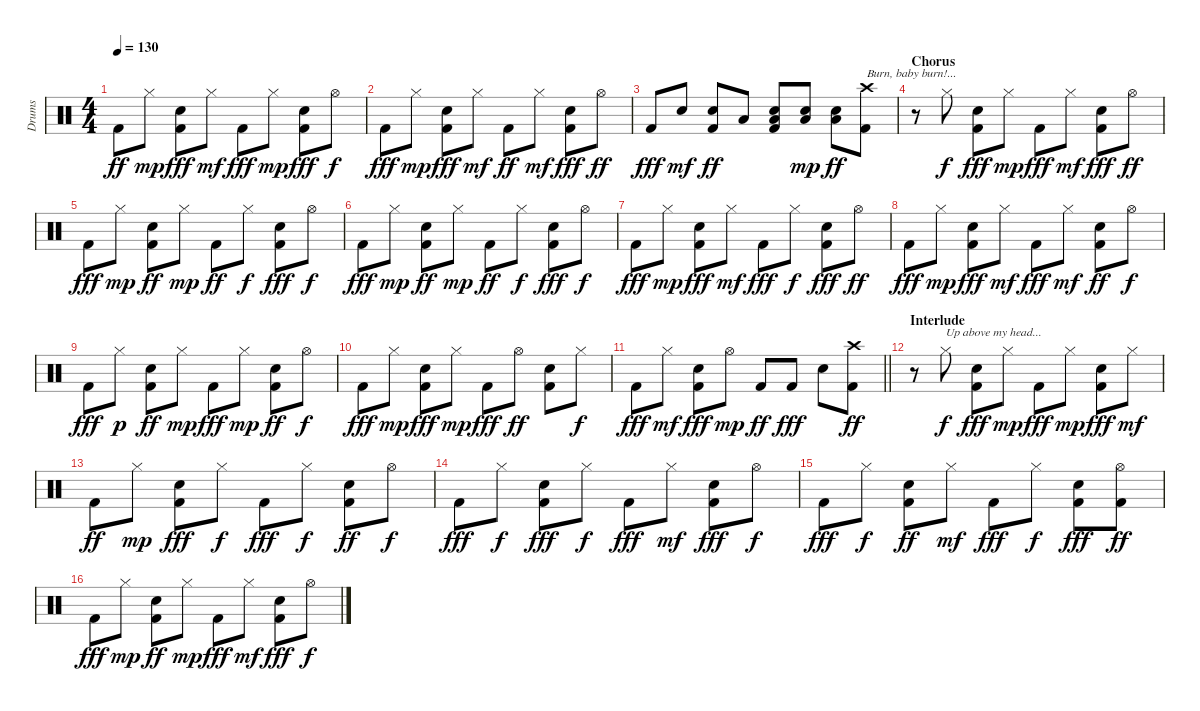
\track ("Drums" "Drums") {instrument percussion}
\staff {score}
\articulation defaults
\ts (4 4)
\tempo 130
\clef neutral
\ks c "Kick (hit) 2".8{dy ff} "Hi-Hat (closed)".8{dy mp}
("Kick (hit) 2" "Snare (hit) 2").8{dy fff} "Hi-Hat (closed)".8{dy mf} "Kick (hit) 2".8{dy fff} "Hi-Hat (closed)".8{dy mp} ("Kick (hit) 2" "Snare (hit) 2").8{dy fff} "Hi-Hat (open)".8{dy f} |
"Kick (hit) 2".8{dy fff} "Hi-Hat (closed)".8{dy mp} ("Kick (hit) 2" "Snare (hit) 2").8{dy fff} "Hi-Hat (closed)".8{dy mf} "Kick (hit) 2".8{dy ff} "Hi-Hat (closed)".8{dy mf} ("Kick (hit) 2" "Snare (hit) 2").8{dy fff} "Hi-Hat (open)".8{dy ff} |
"Kick (hit) 2".8{dy fff} "Snare (hit) 2".8{dy mf} ("Kick (hit) 2" "Snare (hit) 2").8{dy ff} "Low Tom (hit)".8 ("Kick (hit) 2" "Snare (hit) 2" "Low Tom (hit)").8 ("Snare (hit) 2" "Low Floor Tom (hit)").8{dy mp} ("Snare (hit) 2" "Low Floor Tom (hit)").8{dy ff} ("Kick (hit) 2" "Crash high (hit)").8{txt "Burn, baby burn!..."} |
\section ("" "Chorus")
r.8 "Hi-Hat (closed)".8{dy f} ("Kick (hit) 2" "Snare (hit) 2").8{dy fff} "Hi-Hat (closed)".8{dy mp} "Kick (hit) 2".8{dy fff} "Hi-Hat (closed)".8{dy mf} ("Kick (hit) 2" "Snare (hit) 2").8{dy fff} "Hi-Hat (open)".8{dy ff} |
"Kick (hit) 2".8{dy fff} "Hi-Hat (closed)".8{dy mp} ("Kick (hit) 2" "Snare (hit) 2").8{dy ff} "Hi-Hat (closed)".8{dy mp} "Kick (hit) 2".8{dy ff} "Hi-Hat (closed)".8{dy f} ("Kick (hit) 2" "Snare (hit) 2").8{dy fff} "Hi-Hat (open)".8{dy f} |
"Kick (hit) 2".8{dy fff} "Hi-Hat (closed)".8{dy mp} ("Kick (hit) 2" "Snare (hit) 2").8{dy ff} "Hi-Hat (closed)".8{dy mp} "Kick (hit) 2".8{dy ff} "Hi-Hat (closed)".8{dy f} ("Kick (hit) 2" "Snare (hit) 2").8{dy fff} "Hi-Hat (open)".8{dy f} |
"Kick (hit) 2".8{dy fff} "Hi-Hat (closed)".8{dy mp} ("Kick (hit) 2" "Snare (hit) 2").8{dy fff} "Hi-Hat (closed)".8{dy mf} "Kick (hit) 2".8{dy fff} "Hi-Hat (closed)".8{dy f} ("Kick (hit) 2" "Snare (hit) 2").8{dy fff} "Hi-Hat (open)".8{dy ff} |
"Kick (hit) 2".8{dy fff} "Hi-Hat (closed)".8{dy mp} ("Kick (hit) 2" "Snare (hit) 2").8{dy fff} "Hi-Hat (closed)".8{dy mf} "Kick (hit) 2".8{dy fff} "Hi-Hat (closed)".8{dy mf} ("Kick (hit) 2" "Snare (hit) 2").8{dy ff} "Hi-Hat (open)".8{dy f} |
"Kick (hit) 2".8{dy fff} "Hi-Hat (closed)".8{dy p} ("Kick (hit) 2" "Snare (hit) 2").8{dy ff} "Hi-Hat (closed)".8{dy mp} "Kick (hit) 2".8{dy fff} "Hi-Hat (closed)".8{dy mp} ("Kick (hit) 2" "Snare (hit) 2").8{dy ff} "Hi-Hat (open)".8{dy f} |
"Kick (hit) 2".8{dy fff} "Hi-Hat (closed)".8{dy mp} ("Kick (hit) 2" "Snare (hit) 2").8{dy fff} "Hi-Hat (closed)".8{dy mp} "Kick (hit) 2".8{dy fff} "Hi-Hat (open)".8{dy ff} ("Kick (hit) 2" "Snare (hit) 2").8 "Hi-Hat (closed)".8{dy f} |
\barLineRight lightlight "Kick (hit) 2".8{dy fff} "Hi-Hat (closed)".8{dy mf}
("Kick (hit) 2" "Snare (hit) 2").8{dy fff} "Hi-Hat (open)".8{dy mp} "Kick (hit) 2".8{dy ff} "Kick (hit) 2".8{dy fff} "Snare (hit) 2".8 ("Kick (hit) 2" "Crash high (hit)").8{dy ff} |
\section ("" "Interlude")
r.8 "Hi-Hat (closed)".8{txt "Up above my head..." dy f} ("Kick (hit) 2" "Snare (hit) 2").8{dy fff} "Hi-Hat (closed)".8{dy mp} "Kick (hit) 2".8{dy fff} "Hi-Hat (closed)".8{dy mp} ("Kick (hit) 2" "Snare (hit) 2").8{dy fff} "Hi-Hat (closed)".8{dy mf} |
"Kick (hit) 2".8{dy ff} "Hi-Hat (closed)".8{dy mp} ("Kick (hit) 2" "Snare (hit) 2").8{dy fff} "Hi-Hat (closed)".8{dy f} "Kick (hit) 2".8{dy fff} "Hi-Hat (closed)".8{dy f} ("Kick (hit) 2" "Snare (hit) 2").8{dy ff} "Hi-Hat (open)".8{dy f} |
"Kick (hit) 2".8{dy fff} "Hi-Hat (closed)".8{dy f} ("Kick (hit) 2" "Snare (hit) 2").8{dy fff} "Hi-Hat (closed)".8{dy f} "Kick (hit) 2".8{dy fff} "Hi-Hat (closed)".8{dy mf} ("Kick (hit) 2" "Snare (hit) 2").8{dy fff} "Hi-Hat (open)".8{dy f} |
"Kick (hit) 2".8{dy fff} "Hi-Hat (closed)".8{dy f} ("Kick (hit) 2" "Snare (hit) 2").8{dy ff} "Hi-Hat (closed)".8{dy mf} "Kick (hit) 2".8{dy fff} "Hi-Hat (closed)".8{dy f} ("Kick (hit) 2" "Snare (hit) 2").8{dy fff} ("Kick (hit) 2" "Hi-Hat (open)").8{dy ff} |
"Kick (hit) 2".8{dy fff} "Hi-Hat (closed)".8{dy mp} ("Kick (hit) 2" "Snare (hit) 2").8{dy ff} "Hi-Hat (closed)".8{dy mp} "Kick (hit) 2".8{dy fff} "Hi-Hat (closed)".8{dy mf} ("Kick (hit) 2" "Snare (hit) 2").8{dy fff} "Hi-Hat (open)".8{dy f}
